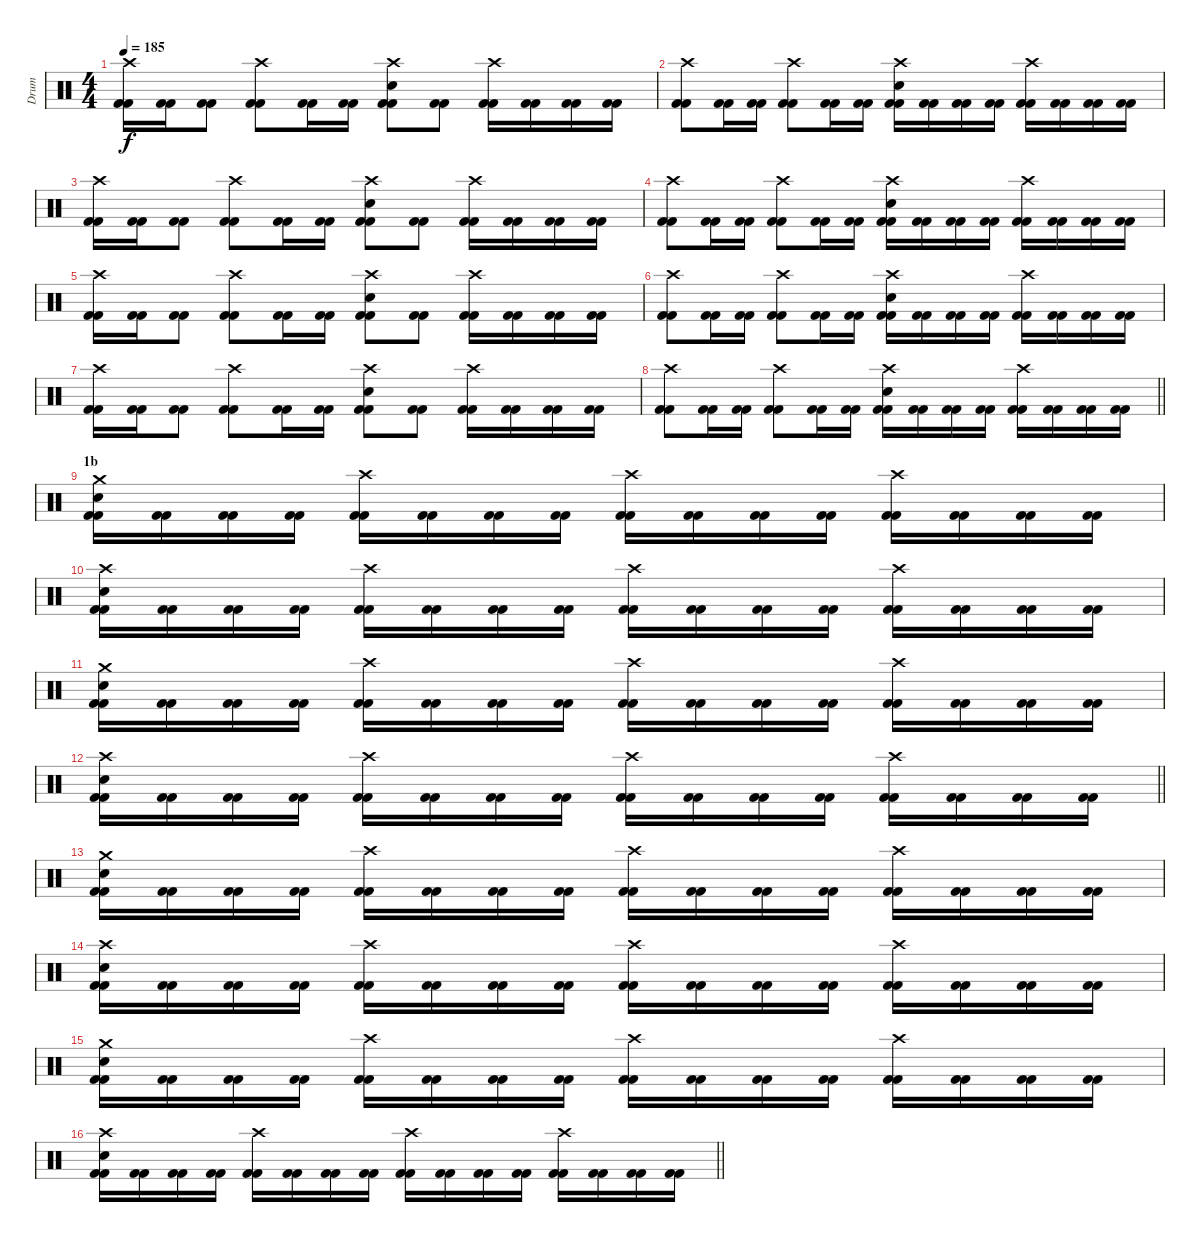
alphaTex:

\track ("Drum" "Drum") {instrument percussion}
\staff {score}
\articulation defaults
\ts (4 4)
\tempo 185
\clef neutral
\ks c
("Crash high (hit)" "Kick (hit) 2" "Kick (hit) 2").16{dy f} ("Kick (hit) 2" "Kick (hit) 2").16 ("Kick (hit) 2" "Kick (hit) 2").8 ("Crash high (hit)" "Kick (hit) 2" "Kick (hit) 2").8 ("Kick (hit) 2" "Kick (hit) 2").16 ("Kick (hit) 2" "Kick (hit) 2").16 ("Crash high (hit)" "Electric Snare (hit)" "Kick (hit) 2" "Kick (hit) 2").8 ("Kick (hit) 2" "Kick (hit) 2").8 ("Crash high (hit)" "Kick (hit) 2" "Kick (hit) 2").16 ("Kick (hit) 2" "Kick (hit) 2").16 ("Kick (hit) 2" "Kick (hit) 2").16 ("Kick (hit) 2" "Kick (hit) 2").16 |
("Crash high (hit)" "Kick (hit) 2" "Kick (hit) 2").8 ("Kick (hit) 2" "Kick (hit) 2").16 ("Kick (hit) 2" "Kick (hit) 2").16 ("Crash high (hit)" "Kick (hit) 2" "Kick (hit) 2").8 ("Kick (hit) 2" "Kick (hit) 2").16 ("Kick (hit) 2" "Kick (hit) 2").16 ("Crash high (hit)" "Electric Snare (hit)" "Kick (hit) 2" "Kick (hit) 2").16 ("Kick (hit) 2" "Kick (hit) 2").16 ("Kick (hit) 2" "Kick (hit) 2").16 ("Kick (hit) 2" "Kick (hit) 2").16 ("Crash high (hit)" "Kick (hit) 2" "Kick (hit) 2").16 ("Kick (hit) 2" "Kick (hit) 2").16 ("Kick (hit) 2" "Kick (hit) 2").16 ("Kick (hit) 2" "Kick (hit) 2").16 |
("Crash high (hit)" "Kick (hit) 2" "Kick (hit) 2").16 ("Kick (hit) 2" "Kick (hit) 2").16 ("Kick (hit) 2" "Kick (hit) 2").8 ("Crash high (hit)" "Kick (hit) 2" "Kick (hit) 2").8 ("Kick (hit) 2" "Kick (hit) 2").16 ("Kick (hit) 2" "Kick (hit) 2").16 ("Crash high (hit)" "Electric Snare (hit)" "Kick (hit) 2" "Kick (hit) 2").8 ("Kick (hit) 2" "Kick (hit) 2").8 ("Crash high (hit)" "Kick (hit) 2" "Kick (hit) 2").16 ("Kick (hit) 2" "Kick (hit) 2").16 ("Kick (hit) 2" "Kick (hit) 2").16 ("Kick (hit) 2" "Kick (hit) 2").16 |
("Crash high (hit)" "Kick (hit) 2" "Kick (hit) 2").8 ("Kick (hit) 2" "Kick (hit) 2").16 ("Kick (hit) 2" "Kick (hit) 2").16 ("Crash high (hit)" "Kick (hit) 2" "Kick (hit) 2").8 ("Kick (hit) 2" "Kick (hit) 2").16 ("Kick (hit) 2" "Kick (hit) 2").16 ("Crash high (hit)" "Electric Snare (hit)" "Kick (hit) 2" "Kick (hit) 2").16 ("Kick (hit) 2" "Kick (hit) 2").16 ("Kick (hit) 2" "Kick (hit) 2").16 ("Kick (hit) 2" "Kick (hit) 2").16 ("Crash high (hit)" "Kick (hit) 2" "Kick (hit) 2").16 ("Kick (hit) 2" "Kick (hit) 2").16 ("Kick (hit) 2" "Kick (hit) 2").16 ("Kick (hit) 2" "Kick (hit) 2").16 |
("Crash high (hit)" "Kick (hit) 2" "Kick (hit) 2").16 ("Kick (hit) 2" "Kick (hit) 2").16 ("Kick (hit) 2" "Kick (hit) 2").8 ("Crash high (hit)" "Kick (hit) 2" "Kick (hit) 2").8 ("Kick (hit) 2" "Kick (hit) 2").16 ("Kick (hit) 2" "Kick (hit) 2").16 ("Crash high (hit)" "Electric Snare (hit)" "Kick (hit) 2" "Kick (hit) 2").8 ("Kick (hit) 2" "Kick (hit) 2").8 ("Crash high (hit)" "Kick (hit) 2" "Kick (hit) 2").16 ("Kick (hit) 2" "Kick (hit) 2").16 ("Kick (hit) 2" "Kick (hit) 2").16 ("Kick (hit) 2" "Kick (hit) 2").16 |
("Crash high (hit)" "Kick (hit) 2" "Kick (hit) 2").8 ("Kick (hit) 2" "Kick (hit) 2").16 ("Kick (hit) 2" "Kick (hit) 2").16 ("Crash high (hit)" "Kick (hit) 2" "Kick (hit) 2").8 ("Kick (hit) 2" "Kick (hit) 2").16 ("Kick (hit) 2" "Kick (hit) 2").16 ("Crash high (hit)" "Electric Snare (hit)" "Kick (hit) 2" "Kick (hit) 2").16 ("Kick (hit) 2" "Kick (hit) 2").16 ("Kick (hit) 2" "Kick (hit) 2").16 ("Kick (hit) 2" "Kick (hit) 2").16 ("Crash high (hit)" "Kick (hit) 2" "Kick (hit) 2").16 ("Kick (hit) 2" "Kick (hit) 2").16 ("Kick (hit) 2" "Kick (hit) 2").16 ("Kick (hit) 2" "Kick (hit) 2").16 |
("Crash high (hit)" "Kick (hit) 2" "Kick (hit) 2").16 ("Kick (hit) 2" "Kick (hit) 2").16 ("Kick (hit) 2" "Kick (hit) 2").8 ("Crash high (hit)" "Kick (hit) 2" "Kick (hit) 2").8 ("Kick (hit) 2" "Kick (hit) 2").16 ("Kick (hit) 2" "Kick (hit) 2").16 ("Crash high (hit)" "Electric Snare (hit)" "Kick (hit) 2" "Kick (hit) 2").8 ("Kick (hit) 2" "Kick (hit) 2").8 ("Crash high (hit)" "Kick (hit) 2" "Kick (hit) 2").16 ("Kick (hit) 2" "Kick (hit) 2").16 ("Kick (hit) 2" "Kick (hit) 2").16 ("Kick (hit) 2" "Kick (hit) 2").16 |
\barLineRight lightlight
("Crash high (hit)" "Kick (hit) 2" "Kick (hit) 2").8 ("Kick (hit) 2" "Kick (hit) 2").16 ("Kick (hit) 2" "Kick (hit) 2").16 ("Crash high (hit)" "Kick (hit) 2" "Kick (hit) 2").8 ("Kick (hit) 2" "Kick (hit) 2").16 ("Kick (hit) 2" "Kick (hit) 2").16 ("Crash high (hit)" "Electric Snare (hit)" "Kick (hit) 2" "Kick (hit) 2").16 ("Kick (hit) 2" "Kick (hit) 2").16 ("Kick (hit) 2" "Kick (hit) 2").16 ("Kick (hit) 2" "Kick (hit) 2").16 ("Crash high (hit)" "Kick (hit) 2" "Kick (hit) 2").16 ("Kick (hit) 2" "Kick (hit) 2").16 ("Kick (hit) 2" "Kick (hit) 2").16 ("Kick (hit) 2" "Kick (hit) 2").16 |
\section ("" "1b")
("Crash medium (hit)" "Electric Snare (hit)" "Kick (hit) 2" "Kick (hit) 2").16 ("Kick (hit) 2" "Kick (hit) 2").16 ("Kick (hit) 2" "Kick (hit) 2").16 ("Kick (hit) 2" "Kick (hit) 2").16 ("Crash high (hit)" "Kick (hit) 2" "Kick (hit) 2").16 ("Kick (hit) 2" "Kick (hit) 2").16 ("Kick (hit) 2" "Kick (hit) 2").16 ("Kick (hit) 2" "Kick (hit) 2").16 ("Crash high (hit)" "Kick (hit) 2" "Kick (hit) 2").16 ("Kick (hit) 2" "Kick (hit) 2").16 ("Kick (hit) 2" "Kick (hit) 2").16 ("Kick (hit) 2" "Kick (hit) 2").16 ("Crash high (hit)" "Kick (hit) 2" "Kick (hit) 2").16 ("Kick (hit) 2" "Kick (hit) 2").16 ("Kick (hit) 2" "Kick (hit) 2").16 ("Kick (hit) 2" "Kick (hit) 2").16 |
("Crash high (hit)" "Electric Snare (hit)" "Kick (hit) 2" "Kick (hit) 2").16 ("Kick (hit) 2" "Kick (hit) 2").16 ("Kick (hit) 2" "Kick (hit) 2").16 ("Kick (hit) 2" "Kick (hit) 2").16 ("Crash high (hit)" "Kick (hit) 2" "Kick (hit) 2").16 ("Kick (hit) 2" "Kick (hit) 2").16 ("Kick (hit) 2" "Kick (hit) 2").16 ("Kick (hit) 2" "Kick (hit) 2").16 ("Crash high (hit)" "Kick (hit) 2" "Kick (hit) 2").16 ("Kick (hit) 2" "Kick (hit) 2").16 ("Kick (hit) 2" "Kick (hit) 2").16 ("Kick (hit) 2" "Kick (hit) 2").16 ("Crash high (hit)" "Kick (hit) 2" "Kick (hit) 2").16 ("Kick (hit) 2" "Kick (hit) 2").16 ("Kick (hit) 2" "Kick (hit) 2").16 ("Kick (hit) 2" "Kick (hit) 2").16 |
("Crash medium (hit)" "Electric Snare (hit)" "Kick (hit) 2" "Kick (hit) 2").16 ("Kick (hit) 2" "Kick (hit) 2").16 ("Kick (hit) 2" "Kick (hit) 2").16 ("Kick (hit) 2" "Kick (hit) 2").16 ("Crash high (hit)" "Kick (hit) 2" "Kick (hit) 2").16 ("Kick (hit) 2" "Kick (hit) 2").16 ("Kick (hit) 2" "Kick (hit) 2").16 ("Kick (hit) 2" "Kick (hit) 2").16 ("Crash high (hit)" "Kick (hit) 2" "Kick (hit) 2").16 ("Kick (hit) 2" "Kick (hit) 2").16 ("Kick (hit) 2" "Kick (hit) 2").16 ("Kick (hit) 2" "Kick (hit) 2").16 ("Crash high (hit)" "Kick (hit) 2" "Kick (hit) 2").16 ("Kick (hit) 2" "Kick (hit) 2").16 ("Kick (hit) 2" "Kick (hit) 2").16 ("Kick (hit) 2" "Kick (hit) 2").16 |
\barLineRight lightlight
("Crash high (hit)" "Electric Snare (hit)" "Kick (hit) 2" "Kick (hit) 2").16 ("Kick (hit) 2" "Kick (hit) 2").16 ("Kick (hit) 2" "Kick (hit) 2").16 ("Kick (hit) 2" "Kick (hit) 2").16 ("Crash high (hit)" "Kick (hit) 2" "Kick (hit) 2").16 ("Kick (hit) 2" "Kick (hit) 2").16 ("Kick (hit) 2" "Kick (hit) 2").16 ("Kick (hit) 2" "Kick (hit) 2").16 ("Crash high (hit)" "Kick (hit) 2" "Kick (hit) 2").16 ("Kick (hit) 2" "Kick (hit) 2").16 ("Kick (hit) 2" "Kick (hit) 2").16 ("Kick (hit) 2" "Kick (hit) 2").16 ("Crash high (hit)" "Kick (hit) 2" "Kick (hit) 2").16 ("Kick (hit) 2" "Kick (hit) 2").16 ("Kick (hit) 2" "Kick (hit) 2").16 ("Kick (hit) 2" "Kick (hit) 2").16 |
("Crash medium (hit)" "Electric Snare (hit)" "Kick (hit) 2" "Kick (hit) 2").16 ("Kick (hit) 2" "Kick (hit) 2").16 ("Kick (hit) 2" "Kick (hit) 2").16 ("Kick (hit) 2" "Kick (hit) 2").16 ("Crash high (hit)" "Kick (hit) 2" "Kick (hit) 2").16 ("Kick (hit) 2" "Kick (hit) 2").16 ("Kick (hit) 2" "Kick (hit) 2").16 ("Kick (hit) 2" "Kick (hit) 2").16 ("Crash high (hit)" "Kick (hit) 2" "Kick (hit) 2").16 ("Kick (hit) 2" "Kick (hit) 2").16 ("Kick (hit) 2" "Kick (hit) 2").16 ("Kick (hit) 2" "Kick (hit) 2").16 ("Crash high (hit)" "Kick (hit) 2" "Kick (hit) 2").16 ("Kick (hit) 2" "Kick (hit) 2").16 ("Kick (hit) 2" "Kick (hit) 2").16 ("Kick (hit) 2" "Kick (hit) 2").16 |
("Crash high (hit)" "Electric Snare (hit)" "Kick (hit) 2" "Kick (hit) 2").16 ("Kick (hit) 2" "Kick (hit) 2").16 ("Kick (hit) 2" "Kick (hit) 2").16 ("Kick (hit) 2" "Kick (hit) 2").16 ("Crash high (hit)" "Kick (hit) 2" "Kick (hit) 2").16 ("Kick (hit) 2" "Kick (hit) 2").16 ("Kick (hit) 2" "Kick (hit) 2").16 ("Kick (hit) 2" "Kick (hit) 2").16 ("Crash high (hit)" "Kick (hit) 2" "Kick (hit) 2").16 ("Kick (hit) 2" "Kick (hit) 2").16 ("Kick (hit) 2" "Kick (hit) 2").16 ("Kick (hit) 2" "Kick (hit) 2").16 ("Crash high (hit)" "Kick (hit) 2" "Kick (hit) 2").16 ("Kick (hit) 2" "Kick (hit) 2").16 ("Kick (hit) 2" "Kick (hit) 2").16 ("Kick (hit) 2" "Kick (hit) 2").16 |
("Crash medium (hit)" "Electric Snare (hit)" "Kick (hit) 2" "Kick (hit) 2").16 ("Kick (hit) 2" "Kick (hit) 2").16 ("Kick (hit) 2" "Kick (hit) 2").16 ("Kick (hit) 2" "Kick (hit) 2").16 ("Crash high (hit)" "Kick (hit) 2" "Kick (hit) 2").16 ("Kick (hit) 2" "Kick (hit) 2").16 ("Kick (hit) 2" "Kick (hit) 2").16 ("Kick (hit) 2" "Kick (hit) 2").16 ("Crash high (hit)" "Kick (hit) 2" "Kick (hit) 2").16 ("Kick (hit) 2" "Kick (hit) 2").16 ("Kick (hit) 2" "Kick (hit) 2").16 ("Kick (hit) 2" "Kick (hit) 2").16 ("Crash high (hit)" "Kick (hit) 2" "Kick (hit) 2").16 ("Kick (hit) 2" "Kick (hit) 2").16 ("Kick (hit) 2" "Kick (hit) 2").16 ("Kick (hit) 2" "Kick (hit) 2").16 |
\barLineRight lightlight
("Crash high (hit)" "Electric Snare (hit)" "Kick (hit) 2" "Kick (hit) 2").16 ("Kick (hit) 2" "Kick (hit) 2").16 ("Kick (hit) 2" "Kick (hit) 2").16 ("Kick (hit) 2" "Kick (hit) 2").16 ("Crash high (hit)" "Kick (hit) 2" "Kick (hit) 2").16 ("Kick (hit) 2" "Kick (hit) 2").16 ("Kick (hit) 2" "Kick (hit) 2").16 ("Kick (hit) 2" "Kick (hit) 2").16 ("Crash high (hit)" "Kick (hit) 2" "Kick (hit) 2").16 ("Kick (hit) 2" "Kick (hit) 2").16 ("Kick (hit) 2" "Kick (hit) 2").16 ("Kick (hit) 2" "Kick (hit) 2").16 ("Crash high (hit)" "Kick (hit) 2" "Kick (hit) 2").16 ("Kick (hit) 2" "Kick (hit) 2").16 ("Kick (hit) 2" "Kick (hit) 2").16 ("Kick (hit) 2" "Kick (hit) 2").16
